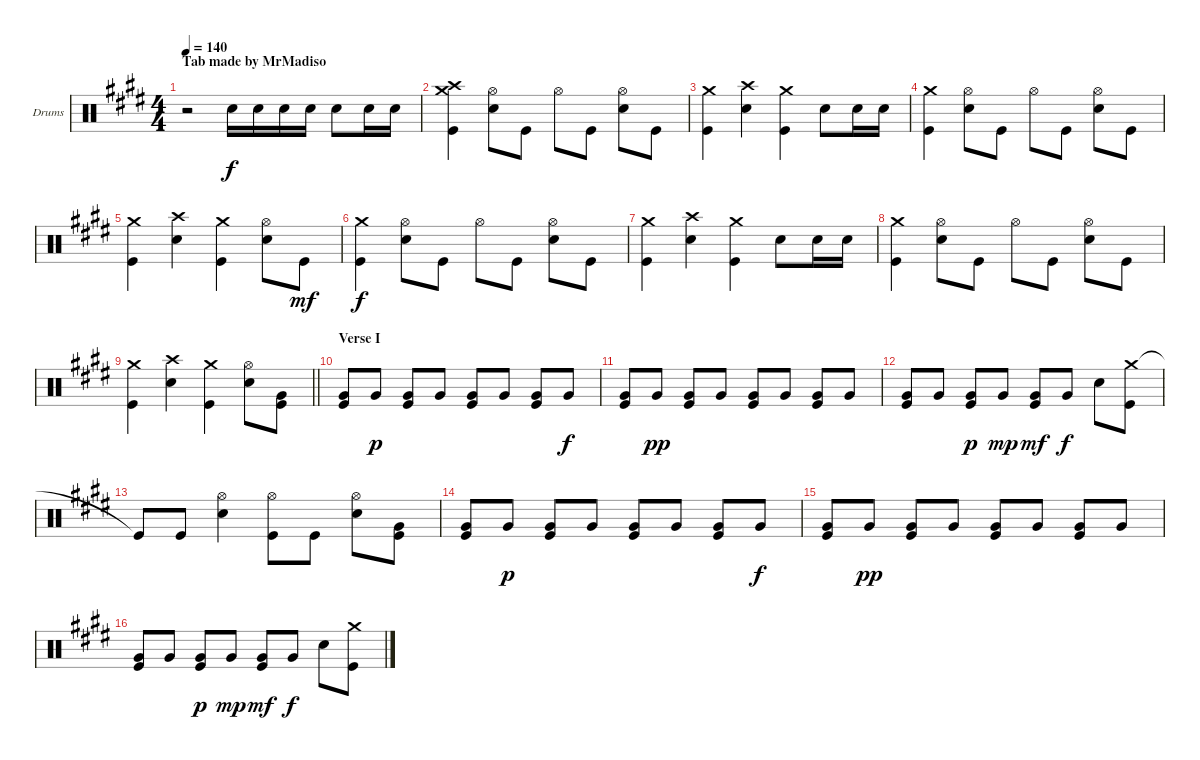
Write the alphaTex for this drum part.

\bracketExtendMode groupsimilarinstruments
\firstSystemTrackNameOrientation horizontal
\otherSystemsTrackNameOrientation horizontal
\track ("Drumkit" "Drums") {instrument percussion}
\staff {score}
\articulation defaults
\ts (4 4)
\beaming (8 2 2 2 2)
\section ("" "Tab made by MrMadiso")
\tempo 140
\clef neutral
\ks e
r.2{dy f} "Snare (hit) 2".16 "Snare (hit) 2".16 "Snare (hit) 2".16 "Snare (hit) 2".16 "Snare (hit) 2".8 "Snare (hit) 2".16 "Snare (hit) 2".16 |
("Crash high (hit)" "Crash medium (hit)" "Kick (hit)").4 ("Hi-Hat (open)" "Snare (hit) 2").8 "Kick (hit)".8 "Hi-Hat (open)".8 "Kick (hit)".8 ("Hi-Hat (open)" "Snare (hit) 2").8 "Kick (hit)".8 |
("Crash medium (hit)" "Kick (hit)").4 ("Crash high (hit)" "Snare (hit) 2").4 ("Crash medium (hit)" "Kick (hit)").4 "Snare (hit) 2".8 "Snare (hit) 2".16 "Snare (hit) 2".16 |
("Crash medium (hit)" "Kick (hit)").4 ("Hi-Hat (open)" "Snare (hit) 2").8 "Kick (hit)".8 "Hi-Hat (open)".8 "Kick (hit)".8 ("Hi-Hat (open)" "Snare (hit) 2").8 "Kick (hit)".8 |
("Crash medium (hit)" "Kick (hit)").4 ("Crash high (hit)" "Snare (hit) 2").4 ("Crash medium (hit)" "Kick (hit)").4 ("Hi-Hat (open)" "Snare (hit) 2").8 "Kick (hit)".8{dy mf} |
("Crash medium (hit)" "Kick (hit)").4{dy f} ("Hi-Hat (open)" "Snare (hit) 2").8 "Kick (hit)".8 "Hi-Hat (open)".8 "Kick (hit)".8 ("Hi-Hat (open)" "Snare (hit) 2").8 "Kick (hit)".8 |
("Crash medium (hit)" "Kick (hit)").4 ("Crash high (hit)" "Snare (hit) 2").4 ("Crash medium (hit)" "Kick (hit)").4 "Snare (hit) 2".8 "Snare (hit) 2".16 "Snare (hit) 2".16 |
("Crash medium (hit)" "Kick (hit)").4 ("Hi-Hat (open)" "Snare (hit) 2").8 "Kick (hit)".8 "Hi-Hat (open)".8 "Kick (hit)".8 ("Hi-Hat (open)" "Snare (hit) 2").8 "Kick (hit)".8 |
\barLineRight lightlight
("Crash medium (hit)" "Kick (hit)").4 ("Crash high (hit)" "Snare (hit) 2").4 ("Crash medium (hit)" "Kick (hit)").4 ("Hi-Hat (open)" "Snare (hit) 2").8 ("Very Low Tom (hit)" "Kick (hit)").8 |
\section ("" "Verse I")
("Very Low Tom (hit)" "Kick (hit)").8 "Very Low Tom (hit)".8{dy p} ("Very Low Tom (hit)" "Kick (hit)").8 "Very Low Tom (hit)".8 ("Very Low Tom (hit)" "Kick (hit)").8 "Very Low Tom (hit)".8 ("Very Low Tom (hit)" "Kick (hit)").8 "Very Low Tom (hit)".8{dy f} |
("Very Low Tom (hit)" "Kick (hit)").8 "Very Low Tom (hit)".8{dy pp} ("Very Low Tom (hit)" "Kick (hit)").8 "Very Low Tom (hit)".8 ("Very Low Tom (hit)" "Kick (hit)").8 "Very Low Tom (hit)".8 ("Very Low Tom (hit)" "Kick (hit)").8 "Very Low Tom (hit)".8 |
("Very Low Tom (hit)" "Kick (hit)").8 "Very Low Tom (hit)".8 ("Very Low Tom (hit)" "Kick (hit)").8{dy p} "Very Low Tom (hit)".8{dy mp} ("Very Low Tom (hit)" "Kick (hit)").8{dy mf} "Very Low Tom (hit)".8{dy f} "Snare (hit) 2".8 ("Crash medium (hit)" "Kick (hit)").8 |
"Kick (hit)"{t}.8 "Kick (hit)".8 ("Hi-Hat (open)" "Snare (hit) 2").4 ("Hi-Hat (open)" "Kick (hit)").8 "Kick (hit)".8 ("Hi-Hat (open)" "Snare (hit) 2").8 ("Very Low Tom (hit)" "Kick (hit)").8 |
("Very Low Tom (hit)" "Kick (hit)").8 "Very Low Tom (hit)".8{dy p} ("Very Low Tom (hit)" "Kick (hit)").8 "Very Low Tom (hit)".8 ("Very Low Tom (hit)" "Kick (hit)").8 "Very Low Tom (hit)".8 ("Very Low Tom (hit)" "Kick (hit)").8 "Very Low Tom (hit)".8{dy f} |
("Very Low Tom (hit)" "Kick (hit)").8 "Very Low Tom (hit)".8{dy pp} ("Very Low Tom (hit)" "Kick (hit)").8 "Very Low Tom (hit)".8 ("Very Low Tom (hit)" "Kick (hit)").8 "Very Low Tom (hit)".8 ("Very Low Tom (hit)" "Kick (hit)").8 "Very Low Tom (hit)".8 |
("Very Low Tom (hit)" "Kick (hit)").8 "Very Low Tom (hit)".8 ("Very Low Tom (hit)" "Kick (hit)").8{dy p} "Very Low Tom (hit)".8{dy mp} ("Very Low Tom (hit)" "Kick (hit)").8{dy mf} "Very Low Tom (hit)".8{dy f} "Snare (hit) 2".8 ("Crash medium (hit)" "Kick (hit)").8
